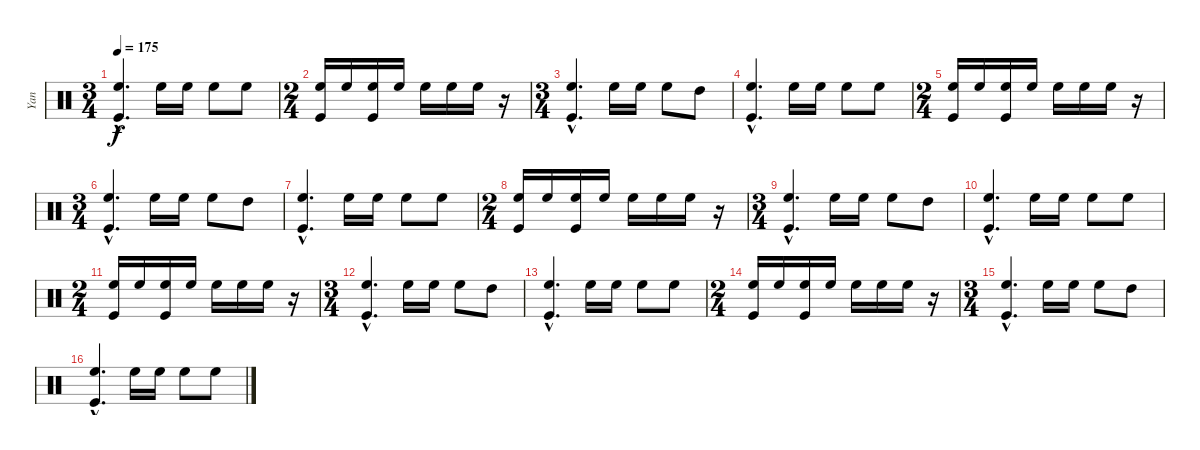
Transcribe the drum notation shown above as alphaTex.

\track ("Yan" "Yan") {instrument percussion}
\staff {score}
\articulation defaults
\ts (3 4)
\tempo 175
\clef neutral
\ks c
("High Floor Tom (hit)"{hac} "Kick (hit)"{hac}).4{d dy f} "High Floor Tom (hit)".16 "High Floor Tom (hit)".16 "High Floor Tom (hit)".8 "High Floor Tom (hit)".8 |
\ts (2 4)
("High Floor Tom (hit)" "Kick (hit)").16 "High Floor Tom (hit)".16 ("High Floor Tom (hit)" "Kick (hit)").16 "High Floor Tom (hit)".16 "High Floor Tom (hit)".16 "High Floor Tom (hit)".16 "High Floor Tom (hit)".16 r.16 |
\ts (3 4)
("High Floor Tom (hit)"{hac} "Kick (hit)"{hac}).4{d} "High Floor Tom (hit)".16 "High Floor Tom (hit)".16 "High Floor Tom (hit)".8 "High Tom (hit)".8 |
("High Floor Tom (hit)"{hac} "Kick (hit)"{hac}).4{d} "High Floor Tom (hit)".16 "High Floor Tom (hit)".16 "High Floor Tom (hit)".8 "High Floor Tom (hit)".8 |
\ts (2 4)
("High Floor Tom (hit)" "Kick (hit)").16 "High Floor Tom (hit)".16 ("High Floor Tom (hit)" "Kick (hit)").16 "High Floor Tom (hit)".16 "High Floor Tom (hit)".16 "High Floor Tom (hit)".16 "High Floor Tom (hit)".16 r.16 |
\ts (3 4)
("High Floor Tom (hit)"{hac} "Kick (hit)"{hac}).4{d} "High Floor Tom (hit)".16 "High Floor Tom (hit)".16 "High Floor Tom (hit)".8 "High Tom (hit)".8 |
("High Floor Tom (hit)"{hac} "Kick (hit)"{hac}).4{d} "High Floor Tom (hit)".16 "High Floor Tom (hit)".16 "High Floor Tom (hit)".8 "High Floor Tom (hit)".8 |
\ts (2 4)
("High Floor Tom (hit)" "Kick (hit)").16 "High Floor Tom (hit)".16 ("High Floor Tom (hit)" "Kick (hit)").16 "High Floor Tom (hit)".16 "High Floor Tom (hit)".16 "High Floor Tom (hit)".16 "High Floor Tom (hit)".16 r.16 |
\ts (3 4)
("High Floor Tom (hit)"{hac} "Kick (hit)"{hac}).4{d} "High Floor Tom (hit)".16 "High Floor Tom (hit)".16 "High Floor Tom (hit)".8 "High Tom (hit)".8 |
("High Floor Tom (hit)"{hac} "Kick (hit)"{hac}).4{d} "High Floor Tom (hit)".16 "High Floor Tom (hit)".16 "High Floor Tom (hit)".8 "High Floor Tom (hit)".8 |
\ts (2 4)
("High Floor Tom (hit)" "Kick (hit)").16 "High Floor Tom (hit)".16 ("High Floor Tom (hit)" "Kick (hit)").16 "High Floor Tom (hit)".16 "High Floor Tom (hit)".16 "High Floor Tom (hit)".16 "High Floor Tom (hit)".16 r.16 |
\ts (3 4)
("High Floor Tom (hit)"{hac} "Kick (hit)"{hac}).4{d} "High Floor Tom (hit)".16 "High Floor Tom (hit)".16 "High Floor Tom (hit)".8 "High Tom (hit)".8 |
("High Floor Tom (hit)"{hac} "Kick (hit)"{hac}).4{d} "High Floor Tom (hit)".16 "High Floor Tom (hit)".16 "High Floor Tom (hit)".8 "High Floor Tom (hit)".8 |
\ts (2 4)
("High Floor Tom (hit)" "Kick (hit)").16 "High Floor Tom (hit)".16 ("High Floor Tom (hit)" "Kick (hit)").16 "High Floor Tom (hit)".16 "High Floor Tom (hit)".16 "High Floor Tom (hit)".16 "High Floor Tom (hit)".16 r.16 |
\ts (3 4)
("High Floor Tom (hit)"{hac} "Kick (hit)"{hac}).4{d} "High Floor Tom (hit)".16 "High Floor Tom (hit)".16 "High Floor Tom (hit)".8 "High Tom (hit)".8 |
("High Floor Tom (hit)"{hac} "Kick (hit)"{hac}).4{d} "High Floor Tom (hit)".16 "High Floor Tom (hit)".16 "High Floor Tom (hit)".8 "High Floor Tom (hit)".8
